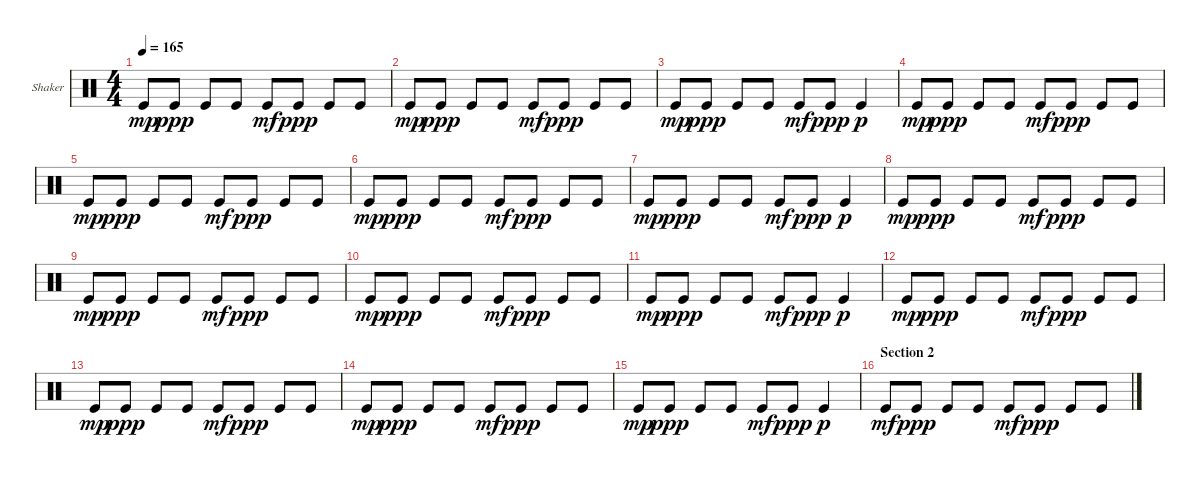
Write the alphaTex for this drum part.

\bracketExtendMode groupsimilarinstruments
\firstSystemTrackNameOrientation horizontal
\otherSystemsTrackNameOrientation horizontal
\track ("Shaker" "Shaker") {instrument percussion}
\staff {score}
\articulation defaults
\ts (4 4)
\tempo 165
\clef neutral
\ks c "Kick (hit)".8{dy mp} "Kick (hit)".8{dy ppp} "Kick (hit)".8 "Kick (hit)".8 "Kick (hit)".8{dy mf} "Kick (hit)".8{dy ppp} "Kick (hit)".8 "Kick (hit)".8
|
"Kick (hit)".8{dy mp} "Kick (hit)".8{dy ppp} "Kick (hit)".8 "Kick (hit)".8 "Kick (hit)".8{dy mf} "Kick (hit)".8{dy ppp} "Kick (hit)".8 "Kick (hit)".8 |
"Kick (hit)".8{dy mp} "Kick (hit)".8{dy ppp} "Kick (hit)".8 "Kick (hit)".8 "Kick (hit)".8{dy mf} "Kick (hit)".8{dy ppp} "Kick (hit)".4{dy p} |
"Kick (hit)".8{dy mp} "Kick (hit)".8{dy ppp} "Kick (hit)".8 "Kick (hit)".8 "Kick (hit)".8{dy mf} "Kick (hit)".8{dy ppp} "Kick (hit)".8 "Kick (hit)".8 |
"Kick (hit)".8{dy mp} "Kick (hit)".8{dy ppp} "Kick (hit)".8 "Kick (hit)".8 "Kick (hit)".8{dy mf} "Kick (hit)".8{dy ppp} "Kick (hit)".8 "Kick (hit)".8 |
"Kick (hit)".8{dy mp} "Kick (hit)".8{dy ppp} "Kick (hit)".8 "Kick (hit)".8 "Kick (hit)".8{dy mf} "Kick (hit)".8{dy ppp} "Kick (hit)".8 "Kick (hit)".8 |
"Kick (hit)".8{dy mp} "Kick (hit)".8{dy ppp} "Kick (hit)".8 "Kick (hit)".8 "Kick (hit)".8{dy mf} "Kick (hit)".8{dy ppp} "Kick (hit)".4{dy p} |
"Kick (hit)".8{dy mp} "Kick (hit)".8{dy ppp} "Kick (hit)".8 "Kick (hit)".8 "Kick (hit)".8{dy mf} "Kick (hit)".8{dy ppp} "Kick (hit)".8 "Kick (hit)".8 |
"Kick (hit)".8{dy mp} "Kick (hit)".8{dy ppp} "Kick (hit)".8 "Kick (hit)".8 "Kick (hit)".8{dy mf} "Kick (hit)".8{dy ppp} "Kick (hit)".8 "Kick (hit)".8 |
"Kick (hit)".8{dy mp} "Kick (hit)".8{dy ppp} "Kick (hit)".8 "Kick (hit)".8 "Kick (hit)".8{dy mf} "Kick (hit)".8{dy ppp} "Kick (hit)".8 "Kick (hit)".8 |
"Kick (hit)".8{dy mp} "Kick (hit)".8{dy ppp} "Kick (hit)".8 "Kick (hit)".8 "Kick (hit)".8{dy mf} "Kick (hit)".8{dy ppp} "Kick (hit)".4{dy p} |
"Kick (hit)".8{dy mp} "Kick (hit)".8{dy ppp} "Kick (hit)".8 "Kick (hit)".8 "Kick (hit)".8{dy mf} "Kick (hit)".8{dy ppp} "Kick (hit)".8 "Kick (hit)".8 |
"Kick (hit)".8{dy mp} "Kick (hit)".8{dy ppp} "Kick (hit)".8 "Kick (hit)".8 "Kick (hit)".8{dy mf} "Kick (hit)".8{dy ppp} "Kick (hit)".8 "Kick (hit)".8 |
"Kick (hit)".8{dy mp} "Kick (hit)".8{dy ppp} "Kick (hit)".8 "Kick (hit)".8 "Kick (hit)".8{dy mf} "Kick (hit)".8{dy ppp} "Kick (hit)".8 "Kick (hit)".8 |
"Kick (hit)".8{dy mp} "Kick (hit)".8{dy ppp} "Kick (hit)".8 "Kick (hit)".8 "Kick (hit)".8{dy mf} "Kick (hit)".8{dy ppp} "Kick (hit)".4{dy p} |
\section ("" "Section 2")
"Kick (hit)".8{dy mf} "Kick (hit)".8{dy ppp} "Kick (hit)".8 "Kick (hit)".8 "Kick (hit)".8{dy mf} "Kick (hit)".8{dy ppp} "Kick (hit)".8 "Kick (hit)".8
